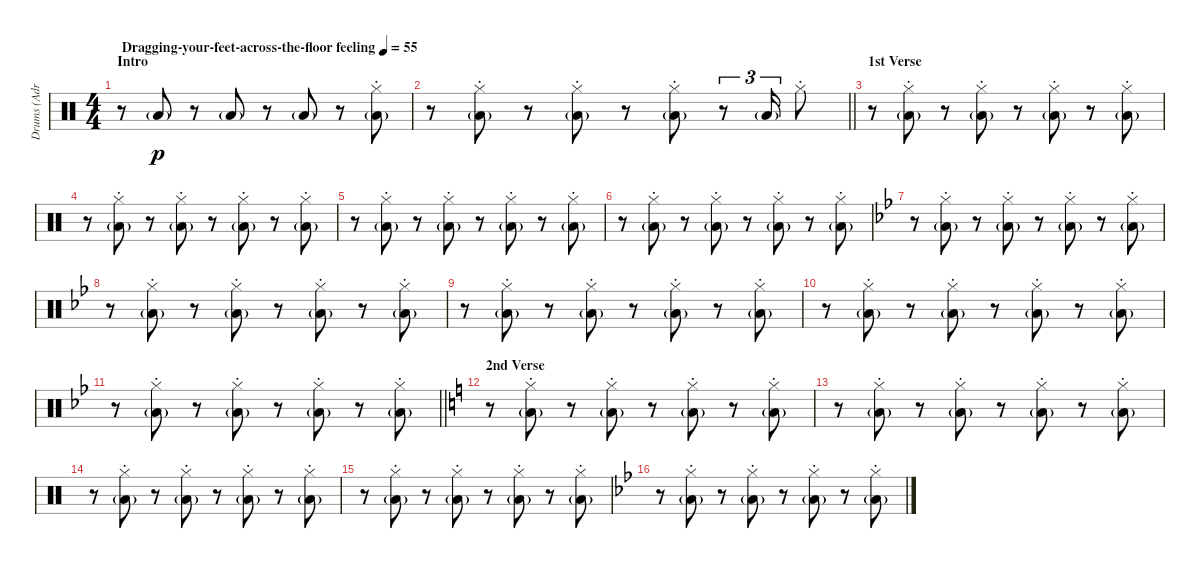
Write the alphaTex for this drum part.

\track ("Drums (Adrian Macintosh)" "Drums (Adr") {instrument percussion}
\staff {score}
\articulation defaults
\ts (4 4)
\section ("" "Intro")
\tempo (55 "Dragging-your-feet-across-the-floor feeling")
\clef neutral
\ks aminor
r.8{dy p} "Low Floor Tom (hit)"{g}.8 r.8 "Low Floor Tom (hit)"{g}.8 r.8 "Low Floor Tom (hit)"{g}.8 r.8 ("Hi-Hat (closed)"{st} "Low Floor Tom (hit)"{g}).8 |
\barLineRight lightlight
r.8 ("Hi-Hat (closed)"{st} "Low Floor Tom (hit)"{g}).8 r.8 ("Hi-Hat (closed)"{st} "Low Floor Tom (hit)"{g}).8 r.8 ("Hi-Hat (closed)"{st} "Low Floor Tom (hit)"{g}).8 r.8{tu (3 2)} "Low Floor Tom (hit)"{g}.16{tu (3 2)} "Hi-Hat (closed)"{st}.8 |
\section ("" "1st Verse")
r.8 ("Hi-Hat (closed)"{st} "Low Floor Tom (hit)"{g}).8 r.8 ("Hi-Hat (closed)"{st} "Low Floor Tom (hit)"{g}).8 r.8 ("Hi-Hat (closed)"{st} "Low Floor Tom (hit)"{g}).8 r.8 ("Hi-Hat (closed)"{st} "Low Floor Tom (hit)"{g}).8 |
r.8 ("Hi-Hat (closed)"{st} "Low Floor Tom (hit)"{g}).8 r.8 ("Hi-Hat (closed)"{st} "Low Floor Tom (hit)"{g}).8 r.8 ("Hi-Hat (closed)"{st} "Low Floor Tom (hit)"{g}).8 r.8 ("Hi-Hat (closed)"{st} "Low Floor Tom (hit)"{g}).8 |
r.8 ("Hi-Hat (closed)"{st} "Low Floor Tom (hit)"{g}).8 r.8 ("Hi-Hat (closed)"{st} "Low Floor Tom (hit)"{g}).8 r.8 ("Hi-Hat (closed)"{st} "Low Floor Tom (hit)"{g}).8 r.8 ("Hi-Hat (closed)"{st} "Low Floor Tom (hit)"{g}).8 |
r.8 ("Hi-Hat (closed)"{st} "Low Floor Tom (hit)"{g}).8 r.8 ("Hi-Hat (closed)"{st} "Low Floor Tom (hit)"{g}).8 r.8 ("Hi-Hat (closed)"{st} "Low Floor Tom (hit)"{g}).8 r.8 ("Hi-Hat (closed)"{st} "Low Floor Tom (hit)"{g}).8 |
\ks gminor
r.8 ("Hi-Hat (closed)"{st} "Low Floor Tom (hit)"{g}).8 r.8 ("Hi-Hat (closed)"{st} "Low Floor Tom (hit)"{g}).8 r.8 ("Hi-Hat (closed)"{st} "Low Floor Tom (hit)"{g}).8 r.8 ("Hi-Hat (closed)"{st} "Low Floor Tom (hit)"{g}).8 |
r.8 ("Hi-Hat (closed)"{st} "Low Floor Tom (hit)"{g}).8 r.8 ("Hi-Hat (closed)"{st} "Low Floor Tom (hit)"{g}).8 r.8 ("Hi-Hat (closed)"{st} "Low Floor Tom (hit)"{g}).8 r.8 ("Hi-Hat (closed)"{st} "Low Floor Tom (hit)"{g}).8 |
r.8 ("Hi-Hat (closed)"{st} "Low Floor Tom (hit)"{g}).8 r.8 ("Hi-Hat (closed)"{st} "Low Floor Tom (hit)"{g}).8 r.8 ("Hi-Hat (closed)"{st} "Low Floor Tom (hit)"{g}).8 r.8 ("Hi-Hat (closed)"{st} "Low Floor Tom (hit)"{g}).8 |
r.8 ("Hi-Hat (closed)"{st} "Low Floor Tom (hit)"{g}).8 r.8 ("Hi-Hat (closed)"{st} "Low Floor Tom (hit)"{g}).8 r.8 ("Hi-Hat (closed)"{st} "Low Floor Tom (hit)"{g}).8 r.8 ("Hi-Hat (closed)"{st} "Low Floor Tom (hit)"{g}).8 |
\barLineRight lightlight
r.8 ("Hi-Hat (closed)"{st} "Low Floor Tom (hit)"{g}).8 r.8 ("Hi-Hat (closed)"{st} "Low Floor Tom (hit)"{g}).8 r.8 ("Hi-Hat (closed)"{st} "Low Floor Tom (hit)"{g}).8 r.8 ("Hi-Hat (closed)"{st} "Low Floor Tom (hit)"{g}).8 |
\section ("" "2nd Verse")
\ks aminor
r.8 ("Hi-Hat (closed)"{st} "Low Floor Tom (hit)"{g}).8 r.8 ("Hi-Hat (closed)"{st} "Low Floor Tom (hit)"{g}).8 r.8 ("Hi-Hat (closed)"{st} "Low Floor Tom (hit)"{g}).8 r.8 ("Hi-Hat (closed)"{st} "Low Floor Tom (hit)"{g}).8 |
r.8 ("Hi-Hat (closed)"{st} "Low Floor Tom (hit)"{g}).8 r.8 ("Hi-Hat (closed)"{st} "Low Floor Tom (hit)"{g}).8 r.8 ("Hi-Hat (closed)"{st} "Low Floor Tom (hit)"{g}).8 r.8 ("Hi-Hat (closed)"{st} "Low Floor Tom (hit)"{g}).8 |
r.8 ("Hi-Hat (closed)"{st} "Low Floor Tom (hit)"{g}).8 r.8 ("Hi-Hat (closed)"{st} "Low Floor Tom (hit)"{g}).8 r.8 ("Hi-Hat (closed)"{st} "Low Floor Tom (hit)"{g}).8 r.8 ("Hi-Hat (closed)"{st} "Low Floor Tom (hit)"{g}).8 |
r.8 ("Hi-Hat (closed)"{st} "Low Floor Tom (hit)"{g}).8 r.8 ("Hi-Hat (closed)"{st} "Low Floor Tom (hit)"{g}).8 r.8 ("Hi-Hat (closed)"{st} "Low Floor Tom (hit)"{g}).8 r.8 ("Hi-Hat (closed)"{st} "Low Floor Tom (hit)"{g}).8 |
\ks gminor
r.8 ("Hi-Hat (closed)"{st} "Low Floor Tom (hit)"{g}).8 r.8 ("Hi-Hat (closed)"{st} "Low Floor Tom (hit)"{g}).8 r.8 ("Hi-Hat (closed)"{st} "Low Floor Tom (hit)"{g}).8 r.8 ("Hi-Hat (closed)"{st} "Low Floor Tom (hit)"{g}).8
